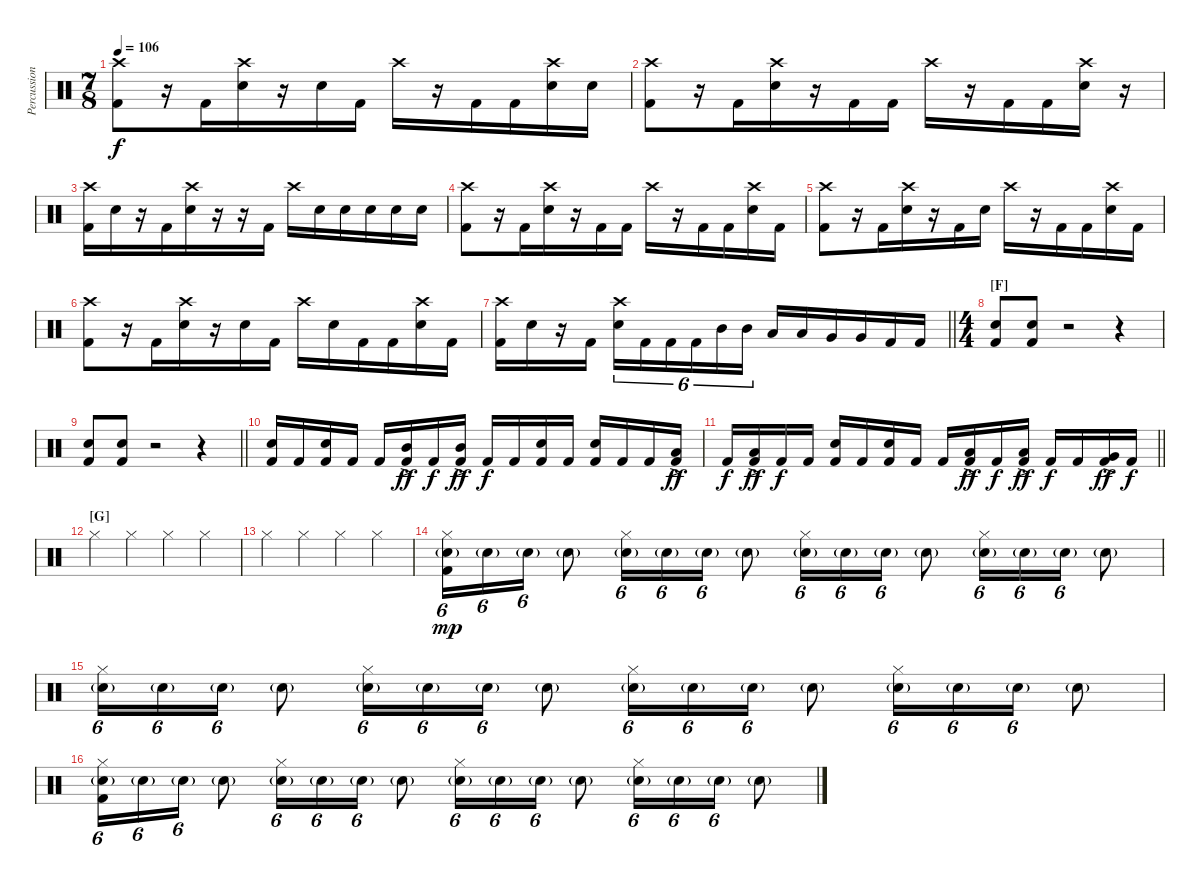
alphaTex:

\track ("Percussions" "Percussion") {instrument percussion}
\staff {score}
\articulation defaults
\ts (7 8)
\tempo 106
\clef neutral
\ks c
("Crash high (hit)" "Kick (hit) 2").8{dy f} r.16 "Kick (hit) 2".16 ("Crash high (hit)" "Electric Snare (hit)").16 r.16 "Electric Snare (hit)".16 "Kick (hit) 2".16 "Crash high (hit)".16 r.16 "Kick (hit) 2".16 "Kick (hit) 2".16 ("Crash high (hit)" "Electric Snare (hit)").16 "Electric Snare (hit)".16 |
("Crash high (hit)" "Kick (hit) 2").8 r.16 "Kick (hit) 2".16 ("Crash high (hit)" "Electric Snare (hit)").16 r.16 "Kick (hit) 2".16 "Kick (hit) 2".16 "Crash high (hit)".16 r.16 "Kick (hit) 2".16 "Kick (hit) 2".16 ("Crash high (hit)" "Electric Snare (hit)").16 r.16 |
("Crash high (hit)" "Kick (hit) 2").16 "Electric Snare (hit)".16 r.16 "Kick (hit) 2".16 ("Crash high (hit)" "Electric Snare (hit)").16 r.16 r.16 "Kick (hit) 2".16 "Crash high (hit)".16 "Electric Snare (hit)".16 "Electric Snare (hit)".16 "Electric Snare (hit)".16 "Electric Snare (hit)".16 "Electric Snare (hit)".16 |
("Crash high (hit)" "Kick (hit) 2").8 r.16 "Kick (hit) 2".16 ("Crash high (hit)" "Electric Snare (hit)").16 r.16 "Kick (hit) 2".16 "Kick (hit) 2".16 "Crash high (hit)".16 r.16 "Kick (hit) 2".16 "Kick (hit) 2".16 ("Crash high (hit)" "Electric Snare (hit)").16 "Kick (hit) 2".16 |
("Crash high (hit)" "Kick (hit) 2").8 r.16 "Kick (hit) 2".16 ("Crash high (hit)" "Electric Snare (hit)").16 r.16 "Kick (hit) 2".16 "Electric Snare (hit)".16 "Crash high (hit)".16 r.16 "Kick (hit) 2".16 "Kick (hit) 2".16 ("Crash high (hit)" "Electric Snare (hit)").16 "Kick (hit) 2".16 |
("Crash high (hit)" "Kick (hit) 2").8 r.16 "Kick (hit) 2".16 ("Crash high (hit)" "Electric Snare (hit)").16 r.16 "Electric Snare (hit)".16 "Kick (hit) 2".16 "Crash high (hit)".16 "Electric Snare (hit)".16 "Kick (hit) 2".16 "Kick (hit) 2".16 ("Crash high (hit)" "Electric Snare (hit)").16 "Kick (hit) 2".16 |
\barLineRight lightlight
("Crash high (hit)" "Kick (hit) 2").16 "Electric Snare (hit)".16 r.16 "Kick (hit) 2".16 ("Crash high (hit)" "Electric Snare (hit)").16{tu (6 4)} "Kick (hit) 2".16{tu (6 4)} "Kick (hit) 2".16{tu (6 4)} "Kick (hit) 2".16{tu (6 4)} "Mid Tom (hit)".16{tu (6 4)} "Mid Tom (hit)".16{tu (6 4)} "Low Tom (hit)".16 "Low Tom (hit)".16 "Very Low Tom (hit)".16 "Very Low Tom (hit)".16 "Kick (hit) 2".16 "Kick (hit) 2".16 |
\ts (4 4)
\section ("" "[F]")
("Electric Snare (hit)" "Kick (hit) 2").8 ("Electric Snare (hit)" "Kick (hit) 2").8 r.2 r.4 |
\barLineRight lightlight
("Electric Snare (hit)" "Kick (hit) 2").8 ("Electric Snare (hit)" "Kick (hit) 2").8 r.2 r.4 |
("Electric Snare (hit)" "Kick (hit) 2").16 "Kick (hit) 2".16 ("Electric Snare (hit)" "Kick (hit) 2").16 "Kick (hit) 2".16 "Kick (hit) 2".16 ("Mid Tom (hit)"{ac} "Kick (hit) 2").16{dy ff} "Kick (hit) 2".16{dy f} ("Mid Tom (hit)"{ac} "Kick (hit) 2").16{dy ff} "Kick (hit) 2".16{dy f} "Kick (hit) 2".16 ("Electric Snare (hit)" "Kick (hit) 2").16 "Kick (hit) 2".16 ("Electric Snare (hit)" "Kick (hit) 2").16 "Kick (hit) 2".16 "Kick (hit) 2".16 ("Low Tom (hit)"{ac} "Kick (hit) 2").16{dy ff} |
\barLineRight lightlight "Kick (hit) 2".16{dy f}
("Low Tom (hit)"{ac} "Kick (hit) 2").16{dy ff} "Kick (hit) 2".16{dy f} "Kick (hit) 2".16 ("Electric Snare (hit)" "Kick (hit) 2").16 "Kick (hit) 2".16 ("Electric Snare (hit)" "Kick (hit) 2").16 "Kick (hit) 2".16 "Kick (hit) 2".16 ("Low Tom (hit)"{ac} "Kick (hit) 2").16{dy ff} "Kick (hit) 2".16{dy f} ("Low Tom (hit)"{ac} "Kick (hit) 2").16{dy ff} "Kick (hit) 2".16{dy f} "Kick (hit) 2".16 ("Very Low Tom (hit)"{ac} "Kick (hit) 2").16{dy ff} "Kick (hit) 2".16{dy f} |
\section ("" "[G]")
"Hi-Hat (closed)".4 "Hi-Hat (closed)".4 "Hi-Hat (closed)".4 "Hi-Hat (closed)".4 |
"Hi-Hat (closed)".4 "Hi-Hat (closed)".4 "Hi-Hat (closed)".4 "Hi-Hat (closed)".4 |
("Hi-Hat (closed)" "Electric Snare (hit)"{g} "Kick (hit) 2").16{tu (6 4) dy mp} "Electric Snare (hit)"{g}.16{tu (6 4)} "Electric Snare (hit)"{g}.16{tu (6 4)} "Electric Snare (hit)"{g}.8 ("Hi-Hat (closed)" "Electric Snare (hit)"{g}).16{tu (6 4)} "Electric Snare (hit)"{g}.16{tu (6 4)} "Electric Snare (hit)"{g}.16{tu (6 4)} "Electric Snare (hit)"{g}.8 ("Hi-Hat (closed)" "Electric Snare (hit)"{g}).16{tu (6 4)} "Electric Snare (hit)"{g}.16{tu (6 4)} "Electric Snare (hit)"{g}.16{tu (6 4)} "Electric Snare (hit)"{g}.8 ("Hi-Hat (closed)" "Electric Snare (hit)"{g}).16{tu (6 4)} "Electric Snare (hit)"{g}.16{tu (6 4)} "Electric Snare (hit)"{g}.16{tu (6 4)} "Electric Snare (hit)"{g}.8 |
("Hi-Hat (closed)" "Electric Snare (hit)"{g}).16{tu (6 4)} "Electric Snare (hit)"{g}.16{tu (6 4)} "Electric Snare (hit)"{g}.16{tu (6 4)} "Electric Snare (hit)"{g}.8 ("Hi-Hat (closed)" "Electric Snare (hit)"{g}).16{tu (6 4)} "Electric Snare (hit)"{g}.16{tu (6 4)} "Electric Snare (hit)"{g}.16{tu (6 4)} "Electric Snare (hit)"{g}.8 ("Hi-Hat (closed)" "Electric Snare (hit)"{g}).16{tu (6 4)} "Electric Snare (hit)"{g}.16{tu (6 4)} "Electric Snare (hit)"{g}.16{tu (6 4)} "Electric Snare (hit)"{g}.8 ("Hi-Hat (closed)" "Electric Snare (hit)"{g}).16{tu (6 4)} "Electric Snare (hit)"{g}.16{tu (6 4)} "Electric Snare (hit)"{g}.16{tu (6 4)} "Electric Snare (hit)"{g}.8 |
("Hi-Hat (closed)" "Electric Snare (hit)"{g} "Kick (hit) 2").16{tu (6 4)} "Electric Snare (hit)"{g}.16{tu (6 4)} "Electric Snare (hit)"{g}.16{tu (6 4)} "Electric Snare (hit)"{g}.8 ("Hi-Hat (closed)" "Electric Snare (hit)"{g}).16{tu (6 4)} "Electric Snare (hit)"{g}.16{tu (6 4)} "Electric Snare (hit)"{g}.16{tu (6 4)} "Electric Snare (hit)"{g}.8 ("Hi-Hat (closed)" "Electric Snare (hit)"{g}).16{tu (6 4)} "Electric Snare (hit)"{g}.16{tu (6 4)} "Electric Snare (hit)"{g}.16{tu (6 4)} "Electric Snare (hit)"{g}.8 ("Hi-Hat (closed)" "Electric Snare (hit)"{g}).16{tu (6 4)} "Electric Snare (hit)"{g}.16{tu (6 4)} "Electric Snare (hit)"{g}.16{tu (6 4)} "Electric Snare (hit)"{g}.8
